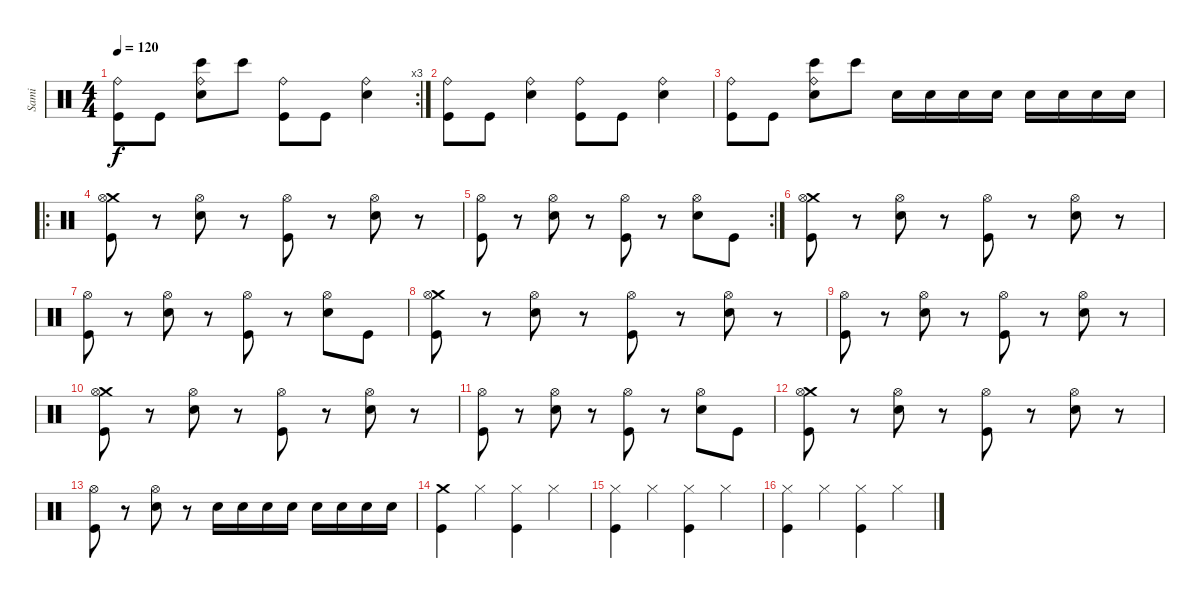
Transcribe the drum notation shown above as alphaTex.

\track ("Sami" "Sami") {instrument percussion}
\staff {score}
\articulation defaults
\rc 3
\ts (4 4)
\tempo 120
\clef neutral
\ks c
("Ride (bell)" "Kick (hit)").8{dy f} "Kick (hit)".8 ("Ride (bell)" "Bongo High (hit)" "Electric Snare (hit)").8 "Bongo High (hit)".8 ("Ride (bell)" "Kick (hit)").8 "Kick (hit)".8 ("Ride (bell)" "Electric Snare (hit)").4 |
("Ride (bell)" "Kick (hit)").8 "Kick (hit)".8 ("Ride (bell)" "Electric Snare (hit)").4 ("Ride (bell)" "Kick (hit)").8 "Kick (hit)".8 ("Ride (bell)" "Electric Snare (hit)").4 |
("Ride (bell)" "Kick (hit)").8 "Kick (hit)".8 ("Ride (bell)" "Bongo High (hit)" "Electric Snare (hit)").8 "Bongo High (hit)".8 "Electric Snare (hit)".16 "Electric Snare (hit)".16 "Electric Snare (hit)".16 "Electric Snare (hit)".16 "Electric Snare (hit)".16 "Electric Snare (hit)".16 "Electric Snare (hit)".16 "Electric Snare (hit)".16 |
\ro
("Crash medium (hit)" "Hi-Hat (open)" "Kick (hit)").8 r.8 ("Electric Snare (hit)" "Hi-Hat (open)").8 r.8 ("Kick (hit)" "Hi-Hat (open)").8 r.8 ("Electric Snare (hit)" "Hi-Hat (open)").8 r.8 |
\rc 2
("Hi-Hat (open)" "Kick (hit)").8 r.8 ("Electric Snare (hit)" "Hi-Hat (open)").8 r.8 ("Kick (hit)" "Hi-Hat (open)").8 r.8 ("Electric Snare (hit)" "Hi-Hat (open)").8 "Kick (hit)".8 |
("Crash medium (hit)" "Hi-Hat (open)" "Kick (hit)").8 r.8 ("Electric Snare (hit)" "Hi-Hat (open)").8 r.8 ("Kick (hit)" "Hi-Hat (open)").8 r.8 ("Electric Snare (hit)" "Hi-Hat (open)").8 r.8 |
("Hi-Hat (open)" "Kick (hit)").8 r.8 ("Electric Snare (hit)" "Hi-Hat (open)").8 r.8 ("Kick (hit)" "Hi-Hat (open)").8 r.8 ("Electric Snare (hit)" "Hi-Hat (open)").8 "Kick (hit)".8 |
("Crash medium (hit)" "Hi-Hat (open)" "Kick (hit)").8 r.8 ("Electric Snare (hit)" "Hi-Hat (open)").8 r.8 ("Kick (hit)" "Hi-Hat (open)").8 r.8 ("Electric Snare (hit)" "Hi-Hat (open)").8 r.8 |
("Hi-Hat (open)" "Kick (hit)").8 r.8 ("Electric Snare (hit)" "Hi-Hat (open)").8 r.8 ("Kick (hit)" "Hi-Hat (open)").8 r.8 ("Electric Snare (hit)" "Hi-Hat (open)").8 r.8 |
("Crash medium (hit)" "Hi-Hat (open)" "Kick (hit)").8 r.8 ("Electric Snare (hit)" "Hi-Hat (open)").8 r.8 ("Kick (hit)" "Hi-Hat (open)").8 r.8 ("Electric Snare (hit)" "Hi-Hat (open)").8 r.8 |
("Hi-Hat (open)" "Kick (hit)").8 r.8 ("Electric Snare (hit)" "Hi-Hat (open)").8 r.8 ("Kick (hit)" "Hi-Hat (open)").8 r.8 ("Electric Snare (hit)" "Hi-Hat (open)").8 "Kick (hit)".8 |
("Crash medium (hit)" "Hi-Hat (open)" "Kick (hit)").8 r.8 ("Electric Snare (hit)" "Hi-Hat (open)").8 r.8 ("Kick (hit)" "Hi-Hat (open)").8 r.8 ("Electric Snare (hit)" "Hi-Hat (open)").8 r.8 |
("Hi-Hat (open)" "Kick (hit)").8 r.8 ("Electric Snare (hit)" "Hi-Hat (open)").8 r.8 "Electric Snare (hit)".16 "Electric Snare (hit)".16 "Electric Snare (hit)".16 "Electric Snare (hit)".16 "Electric Snare (hit)".16 "Electric Snare (hit)".16 "Electric Snare (hit)".16 "Electric Snare (hit)".16 |
("Crash medium (hit)" "Kick (hit)").4 "Hi-Hat (closed)".4 ("Hi-Hat (closed)" "Kick (hit)").4 "Hi-Hat (closed)".4 |
("Hi-Hat (closed)" "Kick (hit)").4 "Hi-Hat (closed)".4 ("Hi-Hat (closed)" "Kick (hit)").4 "Hi-Hat (closed)".4 |
("Hi-Hat (closed)" "Kick (hit)").4 "Hi-Hat (closed)".4 ("Hi-Hat (closed)" "Kick (hit)").4 "Hi-Hat (closed)".4
